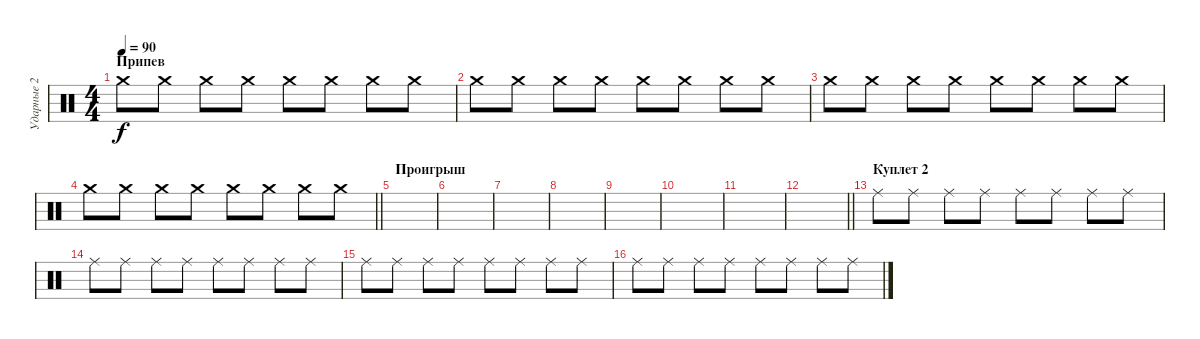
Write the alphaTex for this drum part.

\track ("Ударные 2" "Ударные 2") {instrument percussion}
\staff {score}
\articulation defaults
\ts (4 4)
\section ("" "Припев")
\tempo 90
\clef neutral
\ks c "Crash medium (hit)".8{dy f} "Crash medium (hit)".8 "Crash medium (hit)".8 "Crash medium (hit)".8 "Crash medium (hit)".8 "Crash medium (hit)".8 "Crash medium (hit)".8 "Crash medium (hit)".8
|
"Crash medium (hit)".8 "Crash medium (hit)".8 "Crash medium (hit)".8 "Crash medium (hit)".8 "Crash medium (hit)".8 "Crash medium (hit)".8 "Crash medium (hit)".8 "Crash medium (hit)".8 |
"Crash medium (hit)".8 "Crash medium (hit)".8 "Crash medium (hit)".8 "Crash medium (hit)".8 "Crash medium (hit)".8 "Crash medium (hit)".8 "Crash medium (hit)".8 "Crash medium (hit)".8 |
\barLineRight lightlight "Crash medium (hit)".8 "Crash medium (hit)".8 "Crash medium (hit)".8 "Crash medium (hit)".8 "Crash medium (hit)".8 "Crash medium (hit)".8 "Crash medium (hit)".8 "Crash medium (hit)".8
|
\section ("" "Проигрыш")
|
|
|
|
|
|
|
\barLineRight lightlight
|
\section ("" "Куплет 2")
"Ride (middle)".8 "Ride (middle)".8 "Ride (middle)".8 "Ride (middle)".8 "Ride (middle)".8 "Ride (middle)".8 "Ride (middle)".8 "Ride (middle)".8 |
"Ride (middle)".8 "Ride (middle)".8 "Ride (middle)".8 "Ride (middle)".8 "Ride (middle)".8 "Ride (middle)".8 "Ride (middle)".8 "Ride (middle)".8 |
"Ride (middle)".8 "Ride (middle)".8 "Ride (middle)".8 "Ride (middle)".8 "Ride (middle)".8 "Ride (middle)".8 "Ride (middle)".8 "Ride (middle)".8 |
"Ride (middle)".8 "Ride (middle)".8 "Ride (middle)".8 "Ride (middle)".8 "Ride (middle)".8 "Ride (middle)".8 "Ride (middle)".8 "Ride (middle)".8
